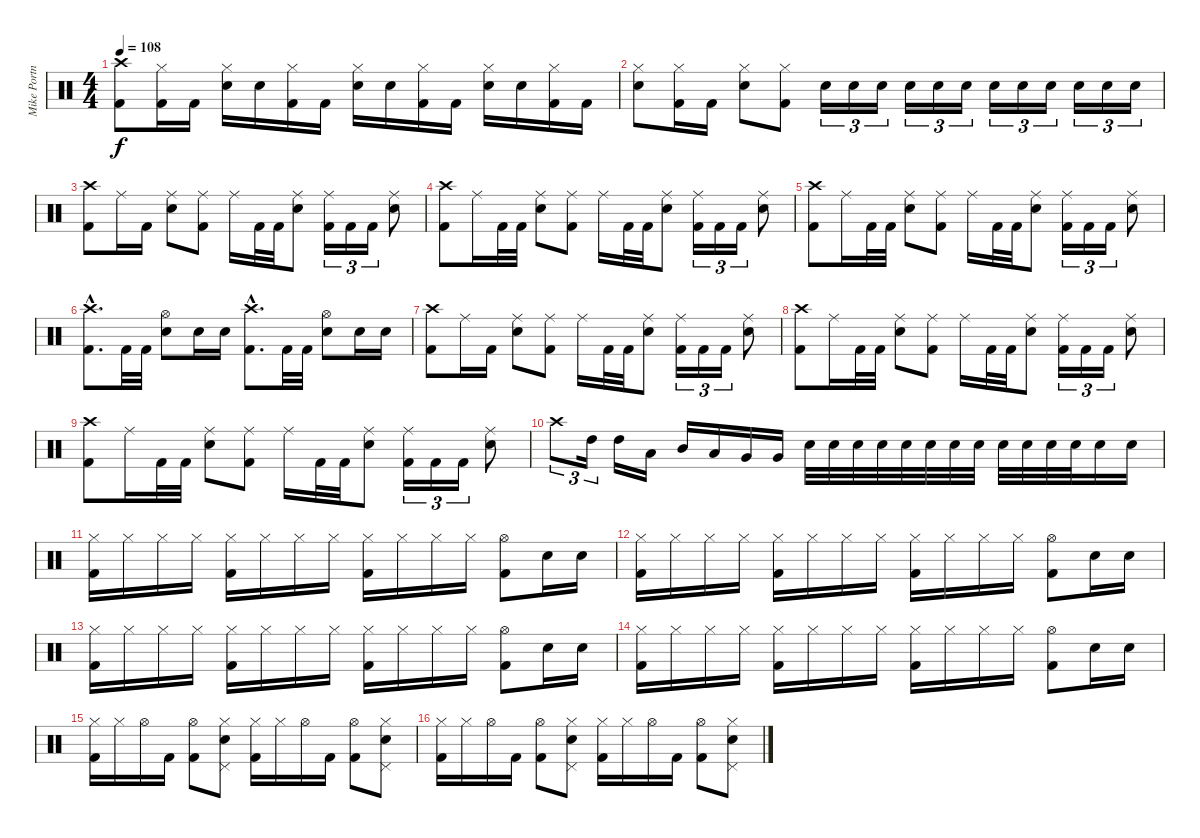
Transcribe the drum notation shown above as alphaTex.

\track ("Mike Portnoy" "Mike Portn") {instrument percussion}
\staff {score}
\articulation defaults
\ts (4 4)
\tempo 108
\clef neutral
\ks c
("Crash high (hit)" "Kick (hit) 2").8{dy f} ("Hi-Hat (closed)" "Kick (hit) 2").16 "Kick (hit) 2".16 ("Hi-Hat (closed)" "Snare (hit) 2").16 "Snare (hit) 2".16 ("Hi-Hat (closed)" "Kick (hit) 2").16 "Kick (hit) 2".16 ("Hi-Hat (closed)" "Snare (hit) 2").16 "Snare (hit) 2".16 ("Hi-Hat (closed)" "Kick (hit) 2").16 "Kick (hit) 2".16 ("Hi-Hat (closed)" "Snare (hit) 2").16 "Snare (hit) 2".16 ("Hi-Hat (closed)" "Kick (hit) 2").16 "Kick (hit) 2".16 |
("Hi-Hat (closed)" "Snare (hit) 2").8 ("Hi-Hat (closed)" "Kick (hit) 2").16 "Kick (hit) 2".16 ("Hi-Hat (closed)" "Snare (hit) 2").8 ("Hi-Hat (closed)" "Kick (hit) 2").8 "Snare (hit) 2".16{tu (3 2)} "Snare (hit) 2".16{tu (3 2)} "Snare (hit) 2".16{tu (3 2)} "Snare (hit) 2".16{tu (3 2)} "Snare (hit) 2".16{tu (3 2)} "Snare (hit) 2".16{tu (3 2)} "Snare (hit) 2".16{tu (3 2)} "Snare (hit) 2".16{tu (3 2)} "Snare (hit) 2".16{tu (3 2)} "Snare (hit) 2".16{tu (3 2)} "Snare (hit) 2".16{tu (3 2)} "Snare (hit) 2".16{tu (3 2)} |
("Crash high (hit)" "Kick (hit) 2").8 "Ride (middle)".16 "Kick (hit) 2".16 ("Ride (middle)" "Snare (hit) 2").8 ("Ride (middle)" "Kick (hit) 2").8 "Ride (middle)".16 "Kick (hit) 2".32 "Kick (hit) 2".32 ("Ride (middle)" "Snare (hit) 2").8 ("Ride (middle)" "Kick (hit) 2").16{tu (3 2)} "Kick (hit) 2".16{tu (3 2)} "Kick (hit) 2".16{tu (3 2)} ("Ride (middle)" "Snare (hit) 2").8 |
("Crash high (hit)" "Kick (hit) 2").8 "Ride (middle)".16 "Kick (hit) 2".32 "Kick (hit) 2".32 ("Ride (middle)" "Snare (hit) 2").8 ("Ride (middle)" "Kick (hit) 2").8 "Ride (middle)".16 "Kick (hit) 2".32 "Kick (hit) 2".32 ("Ride (middle)" "Snare (hit) 2").8 ("Ride (middle)" "Kick (hit) 2").16{tu (3 2)} "Kick (hit) 2".16{tu (3 2)} "Kick (hit) 2".16{tu (3 2)} ("Ride (middle)" "Snare (hit) 2").8 |
("Crash high (hit)" "Kick (hit) 2").8 "Ride (middle)".16 "Kick (hit) 2".32 "Kick (hit) 2".32 ("Ride (middle)" "Snare (hit) 2").8 ("Ride (middle)" "Kick (hit) 2").8 "Ride (middle)".16 "Kick (hit) 2".32 "Kick (hit) 2".32 ("Ride (middle)" "Snare (hit) 2").8 ("Ride (middle)" "Kick (hit) 2").16{tu (3 2)} "Kick (hit) 2".16{tu (3 2)} "Kick (hit) 2".16{tu (3 2)} ("Ride (middle)" "Snare (hit) 2").8 |
("Crash high (hit)"{hac} "Kick (hit) 2"{hac}).8{d} "Kick (hit) 2".32 "Kick (hit) 2".32 ("Hi-Hat (open)" "Snare (hit) 2").8 "Snare (hit) 2".16 "Snare (hit) 2".16 ("Crash high (hit)"{hac} "Kick (hit) 2"{hac}).8{d} "Kick (hit) 2".32 "Kick (hit) 2".32 ("Hi-Hat (open)" "Snare (hit) 2").8 "Snare (hit) 2".16 "Snare (hit) 2".16 |
("Crash high (hit)" "Kick (hit) 2").8 "Ride (middle)".16 "Kick (hit) 2".16 ("Ride (middle)" "Snare (hit) 2").8 ("Ride (middle)" "Kick (hit) 2").8 "Ride (middle)".16 "Kick (hit) 2".32 "Kick (hit) 2".32 ("Ride (middle)" "Snare (hit) 2").8 ("Ride (middle)" "Kick (hit) 2").16{tu (3 2)} "Kick (hit) 2".16{tu (3 2)} "Kick (hit) 2".16{tu (3 2)} ("Ride (middle)" "Snare (hit) 2").8 |
("Crash high (hit)" "Kick (hit) 2").8 "Ride (middle)".16 "Kick (hit) 2".32 "Kick (hit) 2".32 ("Ride (middle)" "Snare (hit) 2").8 ("Ride (middle)" "Kick (hit) 2").8 "Ride (middle)".16 "Kick (hit) 2".32 "Kick (hit) 2".32 ("Ride (middle)" "Snare (hit) 2").8 ("Ride (middle)" "Kick (hit) 2").16{tu (3 2)} "Kick (hit) 2".16{tu (3 2)} "Kick (hit) 2".16{tu (3 2)} ("Ride (middle)" "Snare (hit) 2").8 |
("Crash high (hit)" "Kick (hit) 2").8 "Ride (middle)".16 "Kick (hit) 2".32 "Kick (hit) 2".32 ("Ride (middle)" "Snare (hit) 2").8 ("Ride (middle)" "Kick (hit) 2").8 "Ride (middle)".16 "Kick (hit) 2".32 "Kick (hit) 2".32 ("Ride (middle)" "Snare (hit) 2").8 ("Ride (middle)" "Kick (hit) 2").16{tu (3 2)} "Kick (hit) 2".16{tu (3 2)} "Kick (hit) 2".16{tu (3 2)} ("Ride (middle)" "Snare (hit) 2").8 |
"Crash high (hit)".8{tu (3 2)} "High Tom (hit)".16{tu (3 2)} "High Tom (hit)".16 "Low Tom (hit)".16 "Mid Tom (hit)".16 "Low Tom (hit)".16 "Very Low Tom (hit)".16 "Very Low Tom (hit)".16 "Snare (hit) 2".32 "Snare (hit) 2".32 "Snare (hit) 2".32 "Snare (hit) 2".32 "Snare (hit) 2".32 "Snare (hit) 2".32 "Snare (hit) 2".32 "Snare (hit) 2".32 "Snare (hit) 2".32 "Snare (hit) 2".32 "Snare (hit) 2".32 "Snare (hit) 2".32 "Snare (hit) 2".16 "Snare (hit) 2".16 |
("Hi-Hat (closed)" "Kick (hit) 2").16 "Hi-Hat (closed)".16 "Hi-Hat (closed)".16 "Hi-Hat (closed)".16 ("Hi-Hat (closed)" "Kick (hit) 2").16 "Hi-Hat (closed)".16 "Hi-Hat (closed)".16 "Hi-Hat (closed)".16 ("Hi-Hat (closed)" "Kick (hit) 2").16 "Hi-Hat (closed)".16 "Hi-Hat (closed)".16 "Hi-Hat (closed)".16 ("Hi-Hat (open)" "Kick (hit) 2").8 "Snare (hit) 2".16 "Snare (hit) 2".16 |
("Hi-Hat (closed)" "Kick (hit) 2").16 "Hi-Hat (closed)".16 "Hi-Hat (closed)".16 "Hi-Hat (closed)".16 ("Hi-Hat (closed)" "Kick (hit) 2").16 "Hi-Hat (closed)".16 "Hi-Hat (closed)".16 "Hi-Hat (closed)".16 ("Hi-Hat (closed)" "Kick (hit) 2").16 "Hi-Hat (closed)".16 "Hi-Hat (closed)".16 "Hi-Hat (closed)".16 ("Hi-Hat (open)" "Kick (hit) 2").8 "Snare (hit) 2".16 "Snare (hit) 2".16 |
("Hi-Hat (closed)" "Kick (hit) 2").16 "Hi-Hat (closed)".16 "Hi-Hat (closed)".16 "Hi-Hat (closed)".16 ("Hi-Hat (closed)" "Kick (hit) 2").16 "Hi-Hat (closed)".16 "Hi-Hat (closed)".16 "Hi-Hat (closed)".16 ("Hi-Hat (closed)" "Kick (hit) 2").16 "Hi-Hat (closed)".16 "Hi-Hat (closed)".16 "Hi-Hat (closed)".16 ("Hi-Hat (open)" "Kick (hit) 2").8 "Snare (hit) 2".16 "Snare (hit) 2".16 |
("Hi-Hat (closed)" "Kick (hit) 2").16 "Hi-Hat (closed)".16 "Hi-Hat (closed)".16 "Hi-Hat (closed)".16 ("Hi-Hat (closed)" "Kick (hit) 2").16 "Hi-Hat (closed)".16 "Hi-Hat (closed)".16 "Hi-Hat (closed)".16 ("Hi-Hat (closed)" "Kick (hit) 2").16 "Hi-Hat (closed)".16 "Hi-Hat (closed)".16 "Hi-Hat (closed)".16 ("Hi-Hat (open)" "Kick (hit) 2").8 "Snare (hit) 2".16 "Snare (hit) 2".16 |
("Hi-Hat (closed)" "Kick (hit) 2").16 "Hi-Hat (closed)".16 "Hi-Hat (open)".16 "Kick (hit) 2".16 ("Hi-Hat (open)" "Kick (hit) 2").8 ("Hi-Hat (closed)" "Snare (hit) 2" "Pedal Hi-Hat (hit)").8 ("Hi-Hat (closed)" "Kick (hit) 2").16 "Hi-Hat (closed)".16 "Hi-Hat (open)".16 "Kick (hit) 2".16 ("Hi-Hat (open)" "Kick (hit) 2").8 ("Hi-Hat (closed)" "Snare (hit) 2" "Pedal Hi-Hat (hit)").8 |
("Hi-Hat (closed)" "Kick (hit) 2").16 "Hi-Hat (closed)".16 "Hi-Hat (open)".16 "Kick (hit) 2".16 ("Hi-Hat (open)" "Kick (hit) 2").8 ("Hi-Hat (closed)" "Snare (hit) 2" "Pedal Hi-Hat (hit)").8 ("Hi-Hat (closed)" "Kick (hit) 2").16 "Hi-Hat (closed)".16 "Hi-Hat (open)".16 "Kick (hit) 2".16 ("Hi-Hat (open)" "Kick (hit) 2").8 ("Hi-Hat (closed)" "Snare (hit) 2" "Pedal Hi-Hat (hit)").8
